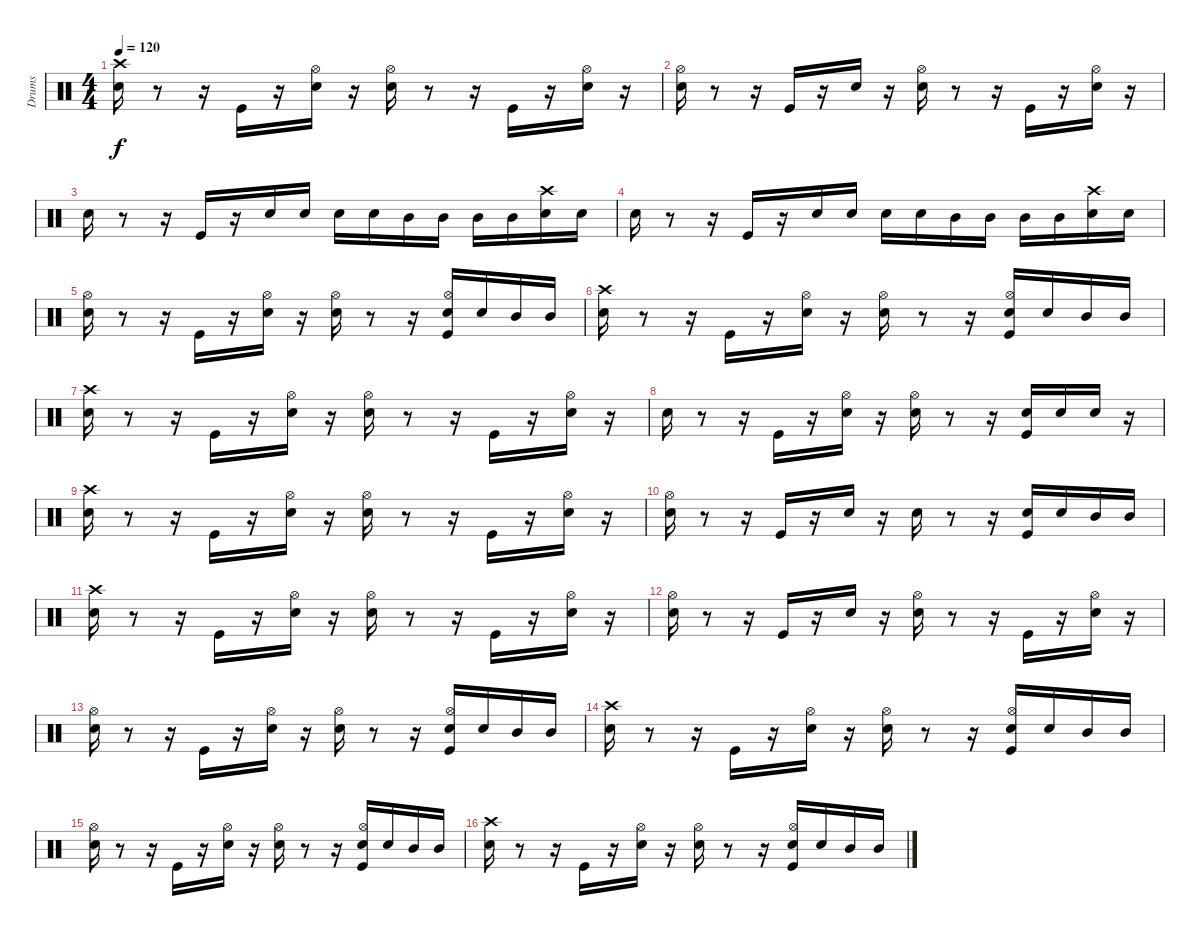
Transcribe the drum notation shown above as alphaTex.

\track ("Drums" "Drums") {instrument percussion}
\staff {score}
\articulation defaults
\ts (4 4)
\tempo 120
\clef neutral
\ks c
("Crash high (hit)" "Electric Snare (hit)").16{dy f} r.8 r.16 "Kick (hit)".16 r.16 ("Hi-Hat (open)" "Electric Snare (hit)").16 r.16 ("Hi-Hat (open)" "Electric Snare (hit)").16 r.8 r.16 "Kick (hit)".16 r.16 ("Hi-Hat (open)" "Electric Snare (hit)").16 r.16 |
("Hi-Hat (open)" "Electric Snare (hit)").16 r.8 r.16 "Kick (hit)".16 r.16 "Electric Snare (hit)".16 r.16 ("Hi-Hat (open)" "Electric Snare (hit)").16 r.8 r.16 "Kick (hit)".16 r.16 ("Hi-Hat (open)" "Electric Snare (hit)").16 r.16 |
"Electric Snare (hit)".16 r.8 r.16 "Kick (hit)".16 r.16 "Snare (hit) 2".16 "Snare (hit) 2".16 "Snare (hit) 2".16 "Snare (hit) 2".16 "Mid Tom (hit)".16 "Mid Tom (hit)".16 "Mid Tom (hit)".16 "Mid Tom (hit)".16 ("Crash high (hit)" "Electric Snare (hit)").16 "Electric Snare (hit)".16 |
"Electric Snare (hit)".16 r.8 r.16 "Kick (hit)".16 r.16 "Snare (hit) 2".16 "Snare (hit) 2".16 "Snare (hit) 2".16 "Snare (hit) 2".16 "Mid Tom (hit)".16 "Mid Tom (hit)".16 "Mid Tom (hit)".16 "Mid Tom (hit)".16 ("Crash high (hit)" "Electric Snare (hit)").16 "Electric Snare (hit)".16 |
("Hi-Hat (open)" "Electric Snare (hit)").16 r.8 r.16 "Kick (hit)".16 r.16 ("Hi-Hat (open)" "Electric Snare (hit)").16 r.16 ("Hi-Hat (open)" "Electric Snare (hit)").16 r.8 r.16 ("Hi-Hat (open)" "Kick (hit)" "Snare (hit) 2").16 "Snare (hit) 2".16 "Mid Tom (hit)".16 "Mid Tom (hit)".16 |
("Crash high (hit)" "Electric Snare (hit)").16 r.8 r.16 "Kick (hit)".16 r.16 ("Hi-Hat (open)" "Electric Snare (hit)").16 r.16 ("Hi-Hat (open)" "Electric Snare (hit)").16 r.8 r.16 ("Hi-Hat (open)" "Kick (hit)" "Snare (hit) 2").16 "Snare (hit) 2".16 "Mid Tom (hit)".16 "Mid Tom (hit)".16 |
("Crash high (hit)" "Electric Snare (hit)").16 r.8 r.16 "Kick (hit)".16 r.16 ("Hi-Hat (open)" "Electric Snare (hit)").16 r.16 ("Hi-Hat (open)" "Electric Snare (hit)").16 r.8 r.16 "Kick (hit)".16 r.16 ("Hi-Hat (open)" "Electric Snare (hit)").16 r.16 |
"Electric Snare (hit)".16 r.8 r.16 "Kick (hit)".16 r.16 ("Hi-Hat (open)" "Electric Snare (hit)").16 r.16 ("Hi-Hat (open)" "Electric Snare (hit)").16 r.8 r.16 ("Snare (hit) 2" "Kick (hit)").16 "Snare (hit) 2".16 "Electric Snare (hit)".16 r.16 |
("Crash high (hit)" "Electric Snare (hit)").16 r.8 r.16 "Kick (hit)".16 r.16 ("Hi-Hat (open)" "Electric Snare (hit)").16 r.16 ("Hi-Hat (open)" "Electric Snare (hit)").16 r.8 r.16 "Kick (hit)".16 r.16 ("Hi-Hat (open)" "Electric Snare (hit)").16 r.16 |
("Hi-Hat (open)" "Electric Snare (hit)").16 r.8 r.16 "Kick (hit)".16 r.16 "Electric Snare (hit)".16 r.16 "Electric Snare (hit)".16 r.8 r.16 ("Snare (hit) 2" "Kick (hit)").16 "Snare (hit) 2".16 "Mid Tom (hit)".16 "Mid Tom (hit)".16 |
("Crash high (hit)" "Electric Snare (hit)").16 r.8 r.16 "Kick (hit)".16 r.16 ("Hi-Hat (open)" "Electric Snare (hit)").16 r.16 ("Hi-Hat (open)" "Electric Snare (hit)").16 r.8 r.16 "Kick (hit)".16 r.16 ("Hi-Hat (open)" "Electric Snare (hit)").16 r.16 |
("Hi-Hat (open)" "Electric Snare (hit)").16 r.8 r.16 "Kick (hit)".16 r.16 "Electric Snare (hit)".16 r.16 ("Hi-Hat (open)" "Electric Snare (hit)").16 r.8 r.16 "Kick (hit)".16 r.16 ("Hi-Hat (open)" "Electric Snare (hit)").16 r.16 |
("Hi-Hat (open)" "Electric Snare (hit)").16 r.8 r.16 "Kick (hit)".16 r.16 ("Hi-Hat (open)" "Electric Snare (hit)").16 r.16 ("Hi-Hat (open)" "Electric Snare (hit)").16 r.8 r.16 ("Hi-Hat (open)" "Kick (hit)" "Snare (hit) 2").16 "Snare (hit) 2".16 "Mid Tom (hit)".16 "Mid Tom (hit)".16 |
("Crash high (hit)" "Electric Snare (hit)").16 r.8 r.16 "Kick (hit)".16 r.16 ("Hi-Hat (open)" "Electric Snare (hit)").16 r.16 ("Hi-Hat (open)" "Electric Snare (hit)").16 r.8 r.16 ("Hi-Hat (open)" "Kick (hit)" "Snare (hit) 2").16 "Snare (hit) 2".16 "Mid Tom (hit)".16 "Mid Tom (hit)".16 |
("Hi-Hat (open)" "Electric Snare (hit)").16 r.8 r.16 "Kick (hit)".16 r.16 ("Hi-Hat (open)" "Electric Snare (hit)").16 r.16 ("Hi-Hat (open)" "Electric Snare (hit)").16 r.8 r.16 ("Hi-Hat (open)" "Kick (hit)" "Snare (hit) 2").16 "Snare (hit) 2".16 "Mid Tom (hit)".16 "Mid Tom (hit)".16 |
("Crash high (hit)" "Electric Snare (hit)").16 r.8 r.16 "Kick (hit)".16 r.16 ("Hi-Hat (open)" "Electric Snare (hit)").16 r.16 ("Hi-Hat (open)" "Electric Snare (hit)").16 r.8 r.16 ("Hi-Hat (open)" "Kick (hit)" "Snare (hit) 2").16 "Snare (hit) 2".16 "Mid Tom (hit)".16 "Mid Tom (hit)".16
